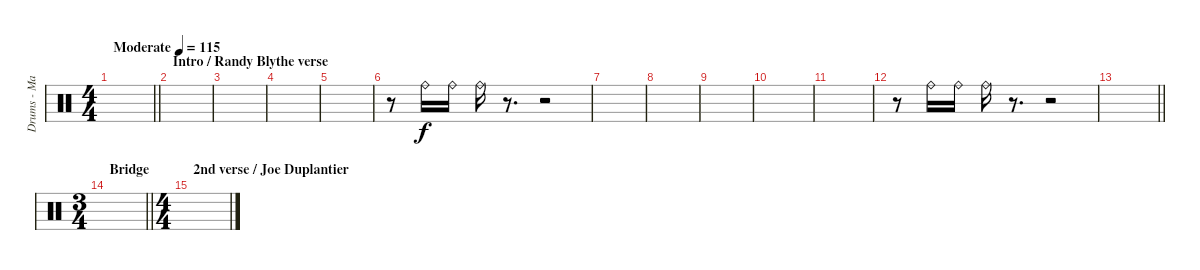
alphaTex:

\track ("Drums - Mario Duplantier" "Drums - Ma") {instrument percussion}
\staff {score}
\articulation defaults
\ts (4 4)
\tempo (115 "Moderate")
\clef neutral
\barLineRight lightlight
\ks c
|
\section ("" "Intro / Randy Blythe verse")
|
|
|
|
r.8 "Ride (bell)".16 "Ride (bell)".16 "Ride (bell)".16 r.8{d} r.2 |
|
|
|
|
|
r.8 "Ride (bell)".16 "Ride (bell)".16 "Ride (bell)".16 r.8{d} r.2 |
\barLineRight lightlight
|
\ts (3 4)
\section ("" "Bridge")
\barLineRight lightlight
|
\ts (4 4)
\section ("" "2nd verse / Joe Duplantier")
